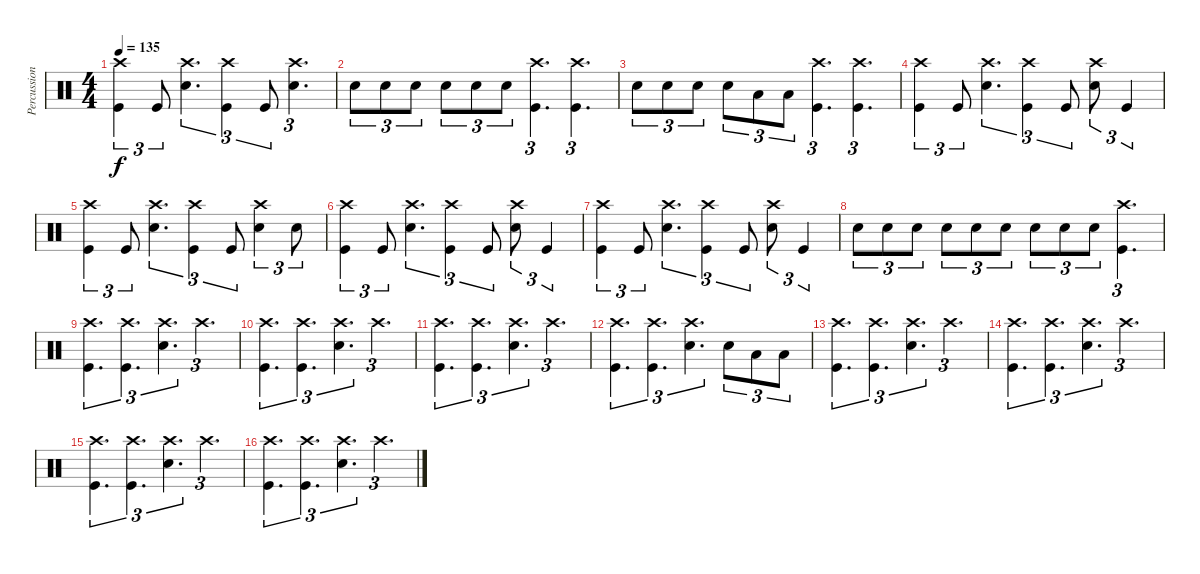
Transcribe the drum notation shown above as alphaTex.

\track ("Percussion" "Percussion") {instrument percussion}
\staff {score}
\articulation defaults
\ts (4 4)
\tempo 135
\clef neutral
\ks c
("Crash high (hit)" "Kick (hit)").4{tu (3 2) dy f} "Kick (hit)".8{tu (3 2)} ("Crash high (hit)" "Snare (hit) 2").4{d tu (3 2)} ("Crash high (hit)" "Kick (hit)").4{tu (3 2)} "Kick (hit)".8{tu (3 2)} ("Crash high (hit)" "Snare (hit) 2").4{d tu (3 2)} |
"Snare (hit) 2".8{tu (3 2)} "Snare (hit) 2".8{tu (3 2)} "Snare (hit) 2".8{tu (3 2)} "Snare (hit) 2".8{tu (3 2)} "Snare (hit) 2".8{tu (3 2)} "Snare (hit) 2".8{tu (3 2)} ("Crash high (hit)" "Kick (hit)").4{d tu (3 2)} ("Crash high (hit)" "Kick (hit)").4{d tu (3 2)} |
"Snare (hit) 2".8{tu (3 2)} "Snare (hit) 2".8{tu (3 2)} "Snare (hit) 2".8{tu (3 2)} "Snare (hit) 2".8{tu (3 2)} "Low Tom (hit)".8{tu (3 2)} "Low Tom (hit)".8{tu (3 2)} ("Crash high (hit)" "Kick (hit)").4{d tu (3 2)} ("Crash high (hit)" "Kick (hit)").4{d tu (3 2)} |
("Crash high (hit)" "Kick (hit)").4{tu (3 2)} "Kick (hit)".8{tu (3 2)} ("Crash high (hit)" "Snare (hit) 2").4{d tu (3 2)} ("Crash high (hit)" "Kick (hit)").4{tu (3 2)} "Kick (hit)".8{tu (3 2)} ("Crash high (hit)" "Snare (hit) 2").8{tu (3 2)} "Kick (hit)".4{tu (3 2)} |
("Crash high (hit)" "Kick (hit)").4{tu (3 2)} "Kick (hit)".8{tu (3 2)} ("Crash high (hit)" "Snare (hit) 2").4{d tu (3 2)} ("Crash high (hit)" "Kick (hit)").4{tu (3 2)} "Kick (hit)".8{tu (3 2)} ("Crash high (hit)" "Snare (hit) 2").4{tu (3 2)} "Snare (hit) 2".8{tu (3 2)} |
("Crash high (hit)" "Kick (hit)").4{tu (3 2)} "Kick (hit)".8{tu (3 2)} ("Crash high (hit)" "Snare (hit) 2").4{d tu (3 2)} ("Crash high (hit)" "Kick (hit)").4{tu (3 2)} "Kick (hit)".8{tu (3 2)} ("Crash high (hit)" "Snare (hit) 2").8{tu (3 2)} "Kick (hit)".4{tu (3 2)} |
("Crash high (hit)" "Kick (hit)").4{tu (3 2)} "Kick (hit)".8{tu (3 2)} ("Crash high (hit)" "Snare (hit) 2").4{d tu (3 2)} ("Crash high (hit)" "Kick (hit)").4{tu (3 2)} "Kick (hit)".8{tu (3 2)} ("Crash high (hit)" "Snare (hit) 2").8{tu (3 2)} "Kick (hit)".4{tu (3 2)} |
"Snare (hit) 2".8{tu (3 2)} "Snare (hit) 2".8{tu (3 2)} "Snare (hit) 2".8{tu (3 2)} "Snare (hit) 2".8{tu (3 2)} "Snare (hit) 2".8{tu (3 2)} "Snare (hit) 2".8{tu (3 2)} "Snare (hit) 2".8{tu (3 2)} "Snare (hit) 2".8{tu (3 2)} "Snare (hit) 2".8{tu (3 2)} ("Crash high (hit)" "Kick (hit)").4{d tu (3 2)} |
("Crash high (hit)" "Kick (hit)").4{d tu (3 2)} ("Crash high (hit)" "Kick (hit)").4{d tu (3 2)} ("Crash high (hit)" "Snare (hit) 2").4{d tu (3 2)} "Crash high (hit)".4{d tu (3 2)} |
("Crash high (hit)" "Kick (hit)").4{d tu (3 2)} ("Crash high (hit)" "Kick (hit)").4{d tu (3 2)} ("Crash high (hit)" "Snare (hit) 2").4{d tu (3 2)} "Crash high (hit)".4{d tu (3 2)} |
("Crash high (hit)" "Kick (hit)").4{d tu (3 2)} ("Crash high (hit)" "Kick (hit)").4{d tu (3 2)} ("Crash high (hit)" "Snare (hit) 2").4{d tu (3 2)} "Crash high (hit)".4{d tu (3 2)} |
("Crash high (hit)" "Kick (hit)").4{d tu (3 2)} ("Crash high (hit)" "Kick (hit)").4{d tu (3 2)} ("Crash high (hit)" "Snare (hit) 2").4{d tu (3 2)} "Snare (hit) 2".8{tu (3 2)} "Low Tom (hit)".8{tu (3 2)} "Low Tom (hit)".8{tu (3 2)} |
("Crash high (hit)" "Kick (hit)").4{d tu (3 2)} ("Crash high (hit)" "Kick (hit)").4{d tu (3 2)} ("Crash high (hit)" "Snare (hit) 2").4{d tu (3 2)} "Crash high (hit)".4{d tu (3 2)} |
("Crash high (hit)" "Kick (hit)").4{d tu (3 2)} ("Crash high (hit)" "Kick (hit)").4{d tu (3 2)} ("Crash high (hit)" "Snare (hit) 2").4{d tu (3 2)} "Crash high (hit)".4{d tu (3 2)} |
("Crash high (hit)" "Kick (hit)").4{d tu (3 2)} ("Crash high (hit)" "Kick (hit)").4{d tu (3 2)} ("Crash high (hit)" "Snare (hit) 2").4{d tu (3 2)} "Crash high (hit)".4{d tu (3 2)} |
("Crash high (hit)" "Kick (hit)").4{d tu (3 2)} ("Crash high (hit)" "Kick (hit)").4{d tu (3 2)} ("Crash high (hit)" "Snare (hit) 2").4{d tu (3 2)} "Crash high (hit)".4{d tu (3 2)}
